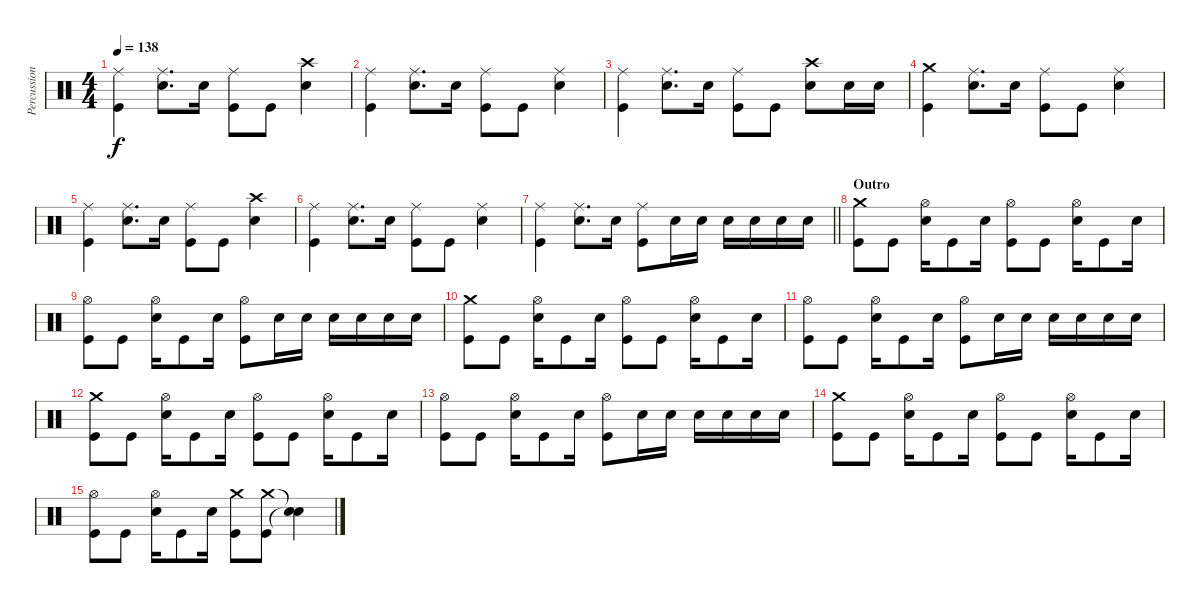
\track ("Percussion" "Percussion") {instrument percussion}
\staff {score}
\articulation defaults
\ts (4 4)
\tempo 138
\clef neutral
\ks c
("Ride (middle)" "Kick (hit)").4{dy f} ("Ride (middle)" "Electric Snare (hit)").8{d} "Electric Snare (hit)".16 ("Ride (middle)" "Kick (hit)").8 "Kick (hit)".8 ("Crash high (hit)" "Electric Snare (hit)").4 |
("Ride (middle)" "Kick (hit)").4 ("Ride (middle)" "Electric Snare (hit)").8{d} "Electric Snare (hit)".16 ("Ride (middle)" "Kick (hit)").8 "Kick (hit)".8 ("Ride (middle)" "Electric Snare (hit)").4 |
("Ride (middle)" "Kick (hit)").4 ("Ride (middle)" "Electric Snare (hit)").8{d} "Electric Snare (hit)".16 ("Ride (middle)" "Kick (hit)").8 "Kick (hit)".8 ("Crash high (hit)" "Electric Snare (hit)").8 "Electric Snare (hit)".16 "Electric Snare (hit)".16 |
("Crash medium (hit)" "Kick (hit)").4 ("Ride (middle)" "Electric Snare (hit)").8{d} "Electric Snare (hit)".16 ("Ride (middle)" "Kick (hit)").8 "Kick (hit)".8 ("Ride (middle)" "Electric Snare (hit)").4 |
("Ride (middle)" "Kick (hit)").4 ("Ride (middle)" "Electric Snare (hit)").8{d} "Electric Snare (hit)".16 ("Ride (middle)" "Kick (hit)").8 "Kick (hit)".8 ("Crash high (hit)" "Electric Snare (hit)").4 |
("Ride (middle)" "Kick (hit)").4 ("Ride (middle)" "Electric Snare (hit)").8{d} "Electric Snare (hit)".16 ("Ride (middle)" "Kick (hit)").8 "Kick (hit)".8 ("Ride (middle)" "Electric Snare (hit)").4 |
\barLineRight lightlight
("Ride (middle)" "Kick (hit)").4 ("Ride (middle)" "Electric Snare (hit)").8{d} "Electric Snare (hit)".16 ("Ride (middle)" "Kick (hit)").8 "Electric Snare (hit)".16 "Electric Snare (hit)".16 "Electric Snare (hit)".16 "Electric Snare (hit)".16 "Electric Snare (hit)".16 "Electric Snare (hit)".16 |
\section ("" "Outro")
("Crash medium (hit)" "Kick (hit)").8 "Kick (hit)".8 ("Hi-Hat (open)" "Electric Snare (hit)").16 "Kick (hit)".8 "Electric Snare (hit)".16 ("Hi-Hat (open)" "Kick (hit)").8 "Kick (hit)".8 ("Hi-Hat (open)" "Electric Snare (hit)").16 "Kick (hit)".8 "Electric Snare (hit)".16 |
("Hi-Hat (open)" "Kick (hit)").8 "Kick (hit)".8 ("Hi-Hat (open)" "Electric Snare (hit)").16 "Kick (hit)".8 "Electric Snare (hit)".16 ("Hi-Hat (open)" "Kick (hit)").8 "Electric Snare (hit)".16 "Electric Snare (hit)".16 "Electric Snare (hit)".16 "Electric Snare (hit)".16 "Electric Snare (hit)".16 "Electric Snare (hit)".16 |
("Crash medium (hit)" "Kick (hit)").8 "Kick (hit)".8 ("Hi-Hat (open)" "Electric Snare (hit)").16 "Kick (hit)".8 "Electric Snare (hit)".16 ("Hi-Hat (open)" "Kick (hit)").8 "Kick (hit)".8 ("Hi-Hat (open)" "Electric Snare (hit)").16 "Kick (hit)".8 "Electric Snare (hit)".16 |
("Hi-Hat (open)" "Kick (hit)").8 "Kick (hit)".8 ("Hi-Hat (open)" "Electric Snare (hit)").16 "Kick (hit)".8 "Electric Snare (hit)".16 ("Hi-Hat (open)" "Kick (hit)").8 "Electric Snare (hit)".16 "Electric Snare (hit)".16 "Electric Snare (hit)".16 "Electric Snare (hit)".16 "Electric Snare (hit)".16 "Electric Snare (hit)".16 |
("Crash medium (hit)" "Kick (hit)").8 "Kick (hit)".8 ("Hi-Hat (open)" "Electric Snare (hit)").16 "Kick (hit)".8 "Electric Snare (hit)".16 ("Hi-Hat (open)" "Kick (hit)").8 "Kick (hit)".8 ("Hi-Hat (open)" "Electric Snare (hit)").16 "Kick (hit)".8 "Electric Snare (hit)".16 |
("Hi-Hat (open)" "Kick (hit)").8 "Kick (hit)".8 ("Hi-Hat (open)" "Electric Snare (hit)").16 "Kick (hit)".8 "Electric Snare (hit)".16 ("Hi-Hat (open)" "Kick (hit)").8 "Electric Snare (hit)".16 "Electric Snare (hit)".16 "Electric Snare (hit)".16 "Electric Snare (hit)".16 "Electric Snare (hit)".16 "Electric Snare (hit)".16 |
("Crash medium (hit)" "Kick (hit)").8 "Kick (hit)".8 ("Hi-Hat (open)" "Electric Snare (hit)").16 "Kick (hit)".8 "Electric Snare (hit)".16 ("Hi-Hat (open)" "Kick (hit)").8 "Kick (hit)".8 ("Hi-Hat (open)" "Electric Snare (hit)").16 "Kick (hit)".8 "Electric Snare (hit)".16 |
("Hi-Hat (open)" "Kick (hit)").8 "Kick (hit)".8 ("Hi-Hat (open)" "Electric Snare (hit)").16 "Kick (hit)".8 "Electric Snare (hit)".16 ("Crash medium (hit)" "Kick (hit)").8 ("Crash medium (hit)" "Kick (hit)").8 ("Snare (hit)"{t} "Snare (hit)"{t}).4
